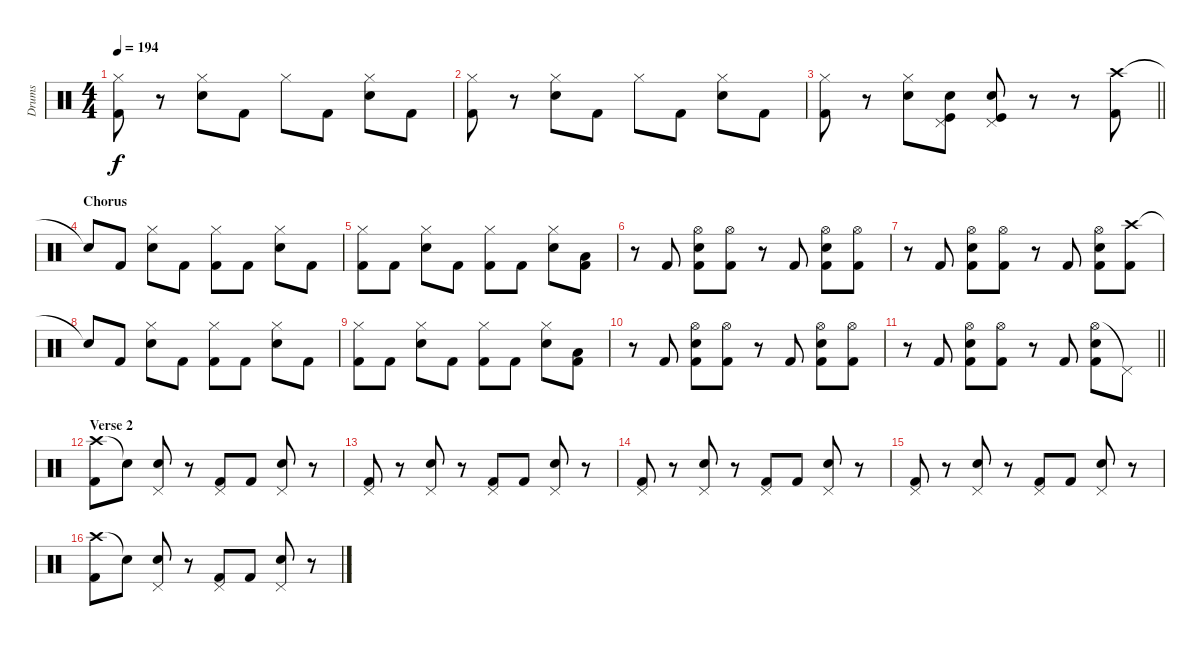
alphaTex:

\track ("Drums" "Drums") {instrument percussion}
\staff {score}
\articulation defaults
\ts (4 4)
\tempo 194
\clef neutral
\ks c
("Hi-Hat (closed)" "Kick (hit) 2").8{dy f} r.8 ("Hi-Hat (closed)" "Snare (hit) 2").8 "Kick (hit) 2".8 "Hi-Hat (closed)".8 "Kick (hit) 2".8 ("Hi-Hat (closed)" "Snare (hit) 2").8 "Kick (hit) 2".8 |
("Hi-Hat (closed)" "Kick (hit) 2").8 r.8 ("Hi-Hat (closed)" "Snare (hit) 2").8 "Kick (hit) 2".8 "Hi-Hat (closed)".8 "Kick (hit) 2".8 ("Hi-Hat (closed)" "Snare (hit) 2").8 "Kick (hit) 2".8 |
\barLineRight lightlight
("Hi-Hat (closed)" "Kick (hit) 2").8 r.8 ("Hi-Hat (closed)" "Snare (hit) 2").8 ("Snare (hit) 2" "Kick (hit)" "Pedal Hi-Hat (hit)").8 ("Snare (hit) 2" "Kick (hit)" "Pedal Hi-Hat (hit)").8 r.8 r.8 ("Crash high (hit)" "Kick (hit) 2").8 |
\section ("" "Chorus")
"Snare (hit)"{t}.8 "Kick (hit) 2".8 ("Hi-Hat (closed)" "Snare (hit) 2").8 "Kick (hit) 2".8 ("Hi-Hat (closed)" "Kick (hit) 2").8 "Kick (hit) 2".8 ("Hi-Hat (closed)" "Snare (hit) 2").8 "Kick (hit) 2".8 |
("Hi-Hat (closed)" "Kick (hit) 2").8 "Kick (hit) 2".8 ("Hi-Hat (closed)" "Snare (hit) 2").8 "Kick (hit) 2".8 ("Hi-Hat (closed)" "Kick (hit) 2").8 "Kick (hit) 2".8 ("Hi-Hat (closed)" "Snare (hit) 2").8 ("Low Tom (hit)" "Kick (hit) 2").8 |
r.8 "Kick (hit) 2".8 ("Hi-Hat (open)" "Snare (hit) 2" "Kick (hit) 2").8 ("Hi-Hat (open)" "Kick (hit) 2").8 r.8 "Kick (hit) 2".8 ("Hi-Hat (open)" "Snare (hit) 2" "Kick (hit) 2").8 ("Hi-Hat (open)" "Kick (hit) 2").8 |
r.8 "Kick (hit) 2".8 ("Hi-Hat (open)" "Snare (hit) 2" "Kick (hit) 2").8 ("Hi-Hat (open)" "Kick (hit) 2").8 r.8 "Kick (hit) 2".8 ("Hi-Hat (open)" "Snare (hit) 2" "Kick (hit) 2").8 ("Crash high (hit)" "Kick (hit) 2").8 |
"Snare (hit)"{t}.8 "Kick (hit) 2".8 ("Hi-Hat (closed)" "Snare (hit) 2").8 "Kick (hit) 2".8 ("Hi-Hat (closed)" "Kick (hit) 2").8 "Kick (hit) 2".8 ("Hi-Hat (closed)" "Snare (hit) 2").8 "Kick (hit) 2".8 |
("Hi-Hat (closed)" "Kick (hit) 2").8 "Kick (hit) 2".8 ("Hi-Hat (closed)" "Snare (hit) 2").8 "Kick (hit) 2".8 ("Hi-Hat (closed)" "Kick (hit) 2").8 "Kick (hit) 2".8 ("Hi-Hat (closed)" "Snare (hit) 2").8 ("Low Tom (hit)" "Kick (hit) 2").8 |
r.8 "Kick (hit) 2".8 ("Hi-Hat (open)" "Snare (hit) 2" "Kick (hit) 2").8 ("Hi-Hat (open)" "Kick (hit) 2").8 r.8 "Kick (hit) 2".8 ("Hi-Hat (open)" "Snare (hit) 2" "Kick (hit) 2").8 ("Hi-Hat (open)" "Kick (hit) 2").8 |
\barLineRight lightlight
r.8 "Kick (hit) 2".8 ("Hi-Hat (open)" "Snare (hit) 2" "Kick (hit) 2").8 ("Hi-Hat (open)" "Kick (hit) 2").8 r.8 "Kick (hit) 2".8 ("Hi-Hat (open)" "Snare (hit) 2" "Kick (hit) 2").8 "Pedal Hi-Hat (hit)"{t}.8 |
\section ("" "Verse 2")
("Crash high (hit)" "Kick (hit) 2").8 "Snare (hit)"{t}.8 ("Pedal Hi-Hat (hit)" "Snare (hit) 2").8 r.8 ("Pedal Hi-Hat (hit)" "Kick (hit) 2").8 "Kick (hit) 2".8 ("Pedal Hi-Hat (hit)" "Snare (hit) 2").8 r.8 |
("Pedal Hi-Hat (hit)" "Kick (hit) 2").8 r.8 ("Pedal Hi-Hat (hit)" "Snare (hit) 2").8 r.8 ("Pedal Hi-Hat (hit)" "Kick (hit) 2").8 "Kick (hit) 2".8 ("Pedal Hi-Hat (hit)" "Snare (hit) 2").8 r.8 |
("Pedal Hi-Hat (hit)" "Kick (hit) 2").8 r.8 ("Pedal Hi-Hat (hit)" "Snare (hit) 2").8 r.8 ("Pedal Hi-Hat (hit)" "Kick (hit) 2").8 "Kick (hit) 2".8 ("Pedal Hi-Hat (hit)" "Snare (hit) 2").8 r.8 |
("Pedal Hi-Hat (hit)" "Kick (hit) 2").8 r.8 ("Pedal Hi-Hat (hit)" "Snare (hit) 2").8 r.8 ("Pedal Hi-Hat (hit)" "Kick (hit) 2").8 "Kick (hit) 2".8 ("Pedal Hi-Hat (hit)" "Snare (hit) 2").8 r.8 |
("Crash high (hit)" "Kick (hit) 2").8 "Snare (hit)"{t}.8 ("Pedal Hi-Hat (hit)" "Snare (hit) 2").8 r.8 ("Pedal Hi-Hat (hit)" "Kick (hit) 2").8 "Kick (hit) 2".8 ("Pedal Hi-Hat (hit)" "Snare (hit) 2").8 r.8
